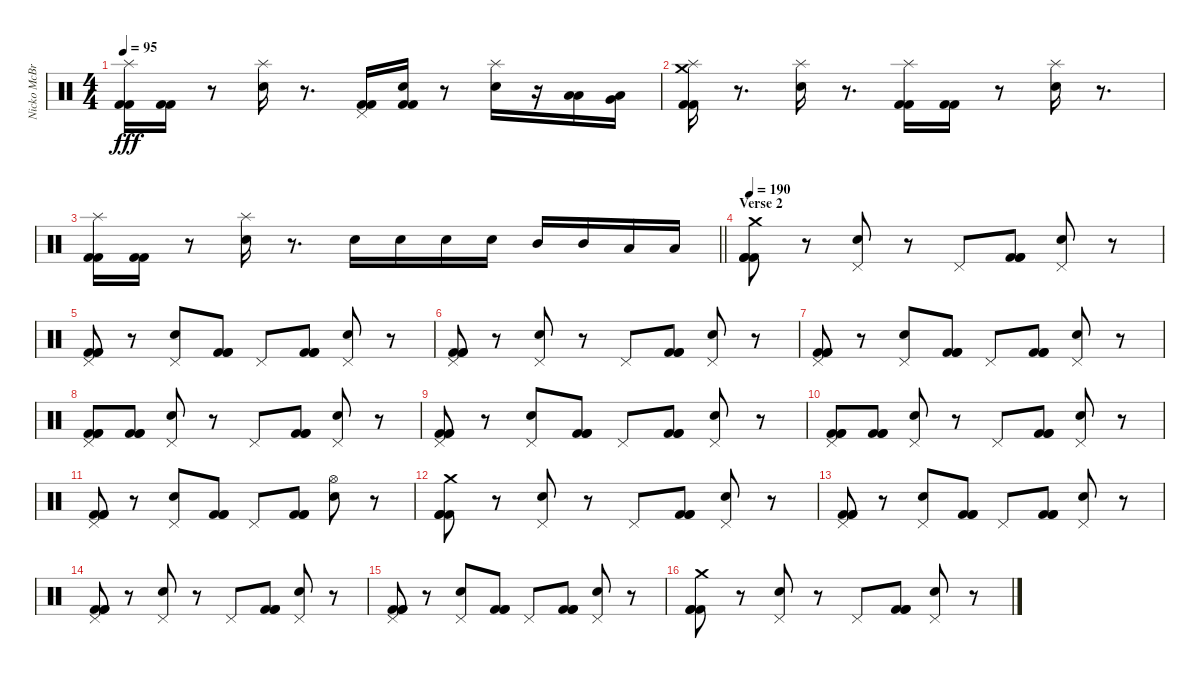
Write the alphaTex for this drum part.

\track ("Nicko McBrain" "Nicko McBr") {instrument percussion}
\staff {score}
\articulation defaults
\ts (4 4)
\tempo 95
\clef neutral
\ks c
("Splash (hit)" "Kick (hit) 2" "Kick (hit) 2").16{dy fff} ("Kick (hit) 2" "Kick (hit) 2").16 r.8 ("Snare (hit) 2" "Splash (hit)").16 r.8{d} ("Pedal Hi-Hat (hit)" "Kick (hit) 2" "Kick (hit) 2").16 ("Snare (hit) 2" "Kick (hit) 2" "Kick (hit) 2").16 r.8 ("Snare (hit) 2" "Splash (hit)").16 r.16 ("Low Tom (hit)" "Low Tom (hit)").16 ("Very Low Tom (hit)" "Low Tom (hit)").16 |
("Crash medium (hit)" "Splash (hit)" "Kick (hit) 2" "Kick (hit) 2").16 r.8{d} ("Snare (hit) 2" "Splash (hit)").16 r.8{d} ("Splash (hit)" "Kick (hit) 2" "Kick (hit) 2").16 ("Kick (hit) 2" "Kick (hit) 2").16 r.8 ("Snare (hit) 2" "Splash (hit)").16 r.8{d} |
\barLineRight lightlight
("Splash (hit)" "Kick (hit) 2" "Kick (hit) 2").16 ("Kick (hit) 2" "Kick (hit) 2").16 r.8 ("Snare (hit) 2" "Splash (hit)").16 r.8{d} "Snare (hit) 2".16 "Snare (hit) 2".16 "Snare (hit) 2".16 "Snare (hit) 2".16 "Mid Tom (hit)".16 "Mid Tom (hit)".16 "Low Tom (hit)".16 "Low Tom (hit)".16 |
\section ("" "Verse 2")
\tempo 190
("Crash medium (hit)" "Kick (hit) 2" "Kick (hit) 2" "Kick (hit) 2").8 r.8 ("Snare (hit) 2" "Pedal Hi-Hat (hit)").8 r.8 "Pedal Hi-Hat (hit)".8 ("Kick (hit) 2" "Kick (hit) 2" "Kick (hit) 2").8 ("Snare (hit) 2" "Pedal Hi-Hat (hit)").8 r.8 |
("Pedal Hi-Hat (hit)" "Kick (hit) 2" "Kick (hit) 2" "Kick (hit) 2").8 r.8 ("Snare (hit) 2" "Pedal Hi-Hat (hit)").8 ("Kick (hit) 2" "Kick (hit) 2" "Kick (hit) 2").8 "Pedal Hi-Hat (hit)".8 ("Kick (hit) 2" "Kick (hit) 2" "Kick (hit) 2").8 ("Snare (hit) 2" "Pedal Hi-Hat (hit)").8 r.8 |
("Pedal Hi-Hat (hit)" "Kick (hit) 2" "Kick (hit) 2" "Kick (hit) 2").8 r.8 ("Snare (hit) 2" "Pedal Hi-Hat (hit)").8 r.8 "Pedal Hi-Hat (hit)".8 ("Kick (hit) 2" "Kick (hit) 2" "Kick (hit) 2").8 ("Snare (hit) 2" "Pedal Hi-Hat (hit)").8 r.8 |
("Pedal Hi-Hat (hit)" "Kick (hit) 2" "Kick (hit) 2" "Kick (hit) 2").8 r.8 ("Snare (hit) 2" "Pedal Hi-Hat (hit)").8 ("Kick (hit) 2" "Kick (hit) 2" "Kick (hit) 2").8 "Pedal Hi-Hat (hit)".8 ("Kick (hit) 2" "Kick (hit) 2" "Kick (hit) 2").8 ("Snare (hit) 2" "Pedal Hi-Hat (hit)").8 r.8 |
("Pedal Hi-Hat (hit)" "Kick (hit) 2" "Kick (hit) 2" "Kick (hit) 2").8 ("Kick (hit) 2" "Kick (hit) 2" "Kick (hit) 2").8 ("Snare (hit) 2" "Pedal Hi-Hat (hit)").8 r.8 "Pedal Hi-Hat (hit)".8 ("Kick (hit) 2" "Kick (hit) 2" "Kick (hit) 2").8 ("Snare (hit) 2" "Pedal Hi-Hat (hit)").8 r.8 |
("Pedal Hi-Hat (hit)" "Kick (hit) 2" "Kick (hit) 2" "Kick (hit) 2").8 r.8 ("Snare (hit) 2" "Pedal Hi-Hat (hit)").8 ("Kick (hit) 2" "Kick (hit) 2" "Kick (hit) 2").8 "Pedal Hi-Hat (hit)".8 ("Kick (hit) 2" "Kick (hit) 2" "Kick (hit) 2").8 ("Snare (hit) 2" "Pedal Hi-Hat (hit)").8 r.8 |
("Pedal Hi-Hat (hit)" "Kick (hit) 2" "Kick (hit) 2" "Kick (hit) 2").8 ("Kick (hit) 2" "Kick (hit) 2" "Kick (hit) 2").8 ("Snare (hit) 2" "Pedal Hi-Hat (hit)").8 r.8 "Pedal Hi-Hat (hit)".8 ("Kick (hit) 2" "Kick (hit) 2" "Kick (hit) 2").8 ("Snare (hit) 2" "Pedal Hi-Hat (hit)").8 r.8 |
("Pedal Hi-Hat (hit)" "Kick (hit) 2" "Kick (hit) 2" "Kick (hit) 2").8 r.8 ("Snare (hit) 2" "Pedal Hi-Hat (hit)").8 ("Kick (hit) 2" "Kick (hit) 2" "Kick (hit) 2").8 "Pedal Hi-Hat (hit)".8 ("Kick (hit) 2" "Kick (hit) 2" "Kick (hit) 2").8 ("Snare (hit) 2" "Hi-Hat (open)").8 r.8 |
("Crash medium (hit)" "Kick (hit) 2" "Kick (hit) 2" "Kick (hit) 2").8 r.8 ("Snare (hit) 2" "Pedal Hi-Hat (hit)").8 r.8 "Pedal Hi-Hat (hit)".8 ("Kick (hit) 2" "Kick (hit) 2" "Kick (hit) 2").8 ("Snare (hit) 2" "Pedal Hi-Hat (hit)").8 r.8 |
("Pedal Hi-Hat (hit)" "Kick (hit) 2" "Kick (hit) 2" "Kick (hit) 2").8 r.8 ("Snare (hit) 2" "Pedal Hi-Hat (hit)").8 ("Kick (hit) 2" "Kick (hit) 2" "Kick (hit) 2").8 "Pedal Hi-Hat (hit)".8 ("Kick (hit) 2" "Kick (hit) 2" "Kick (hit) 2").8 ("Snare (hit) 2" "Pedal Hi-Hat (hit)").8 r.8 |
("Pedal Hi-Hat (hit)" "Kick (hit) 2" "Kick (hit) 2" "Kick (hit) 2").8 r.8 ("Snare (hit) 2" "Pedal Hi-Hat (hit)").8 r.8 "Pedal Hi-Hat (hit)".8 ("Kick (hit) 2" "Kick (hit) 2" "Kick (hit) 2").8 ("Snare (hit) 2" "Pedal Hi-Hat (hit)").8 r.8 |
("Pedal Hi-Hat (hit)" "Kick (hit) 2" "Kick (hit) 2" "Kick (hit) 2").8 r.8 ("Snare (hit) 2" "Pedal Hi-Hat (hit)").8 ("Kick (hit) 2" "Kick (hit) 2" "Kick (hit) 2").8 "Pedal Hi-Hat (hit)".8 ("Kick (hit) 2" "Kick (hit) 2" "Kick (hit) 2").8 ("Snare (hit) 2" "Pedal Hi-Hat (hit)").8 r.8 |
("Crash medium (hit)" "Kick (hit) 2" "Kick (hit) 2" "Kick (hit) 2").8 r.8 ("Snare (hit) 2" "Pedal Hi-Hat (hit)").8 r.8 "Pedal Hi-Hat (hit)".8 ("Kick (hit) 2" "Kick (hit) 2" "Kick (hit) 2").8 ("Snare (hit) 2" "Pedal Hi-Hat (hit)").8 r.8
